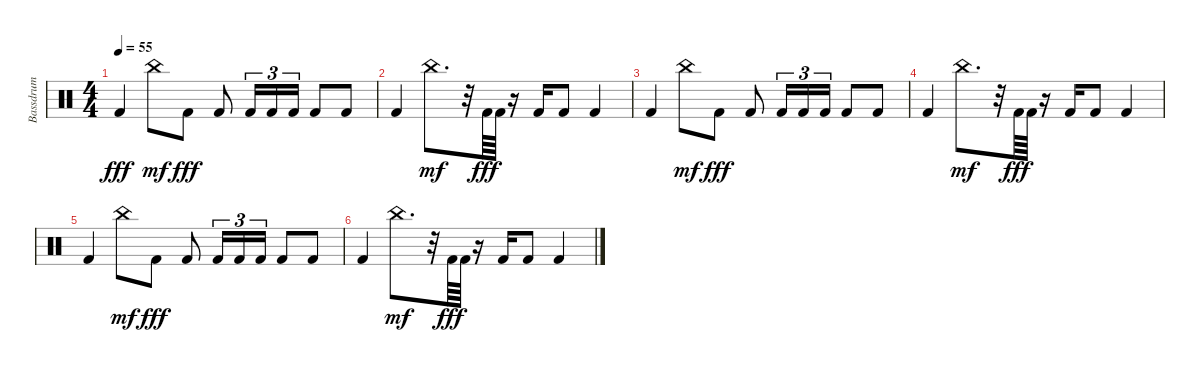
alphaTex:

\track ("Bassdrum" "Bassdrum") {instrument percussion}
\staff {score}
\articulation defaults
\ts (4 4)
\tempo 55
\clef neutral
\ks c "Kick (hit) 2".4{dy fff} "China (hit)".8{dy mf} "Kick (hit) 2".8{dy fff} "Kick (hit) 2".8 "Kick (hit) 2".16{tu (3 2)} "Kick (hit) 2".16{tu (3 2)} "Kick (hit) 2".16{tu (3 2)} "Kick (hit) 2".8 "Kick (hit) 2".8
|
"Kick (hit) 2".4 "China (hit)".8{d dy mf} r.32 "Kick (hit) 2".64{dy fff} "Kick (hit) 2".64 r.16 "Kick (hit) 2".16 "Kick (hit) 2".8 "Kick (hit) 2".4 |
"Kick (hit) 2".4{volume 0} "China (hit)".8{dy mf} "Kick (hit) 2".8{dy fff} "Kick (hit) 2".8 "Kick (hit) 2".16{tu (3 2)} "Kick (hit) 2".16{tu (3 2)} "Kick (hit) 2".16{tu (3 2)} "Kick (hit) 2".8 "Kick (hit) 2".8 |
"Kick (hit) 2".4 "China (hit)".8{d dy mf} r.32 "Kick (hit) 2".64{dy fff} "Kick (hit) 2".64 r.16 "Kick (hit) 2".16 "Kick (hit) 2".8 "Kick (hit) 2".4 |
"Kick (hit) 2".4 "China (hit)".8{dy mf} "Kick (hit) 2".8{dy fff} "Kick (hit) 2".8 "Kick (hit) 2".16{tu (3 2)} "Kick (hit) 2".16{tu (3 2)} "Kick (hit) 2".16{tu (3 2)} "Kick (hit) 2".8 "Kick (hit) 2".8 |
"Kick (hit) 2".4 "China (hit)".8{d dy mf} r.32 "Kick (hit) 2".64{dy fff} "Kick (hit) 2".64 r.16 "Kick (hit) 2".16 "Kick (hit) 2".8 "Kick (hit) 2".4
